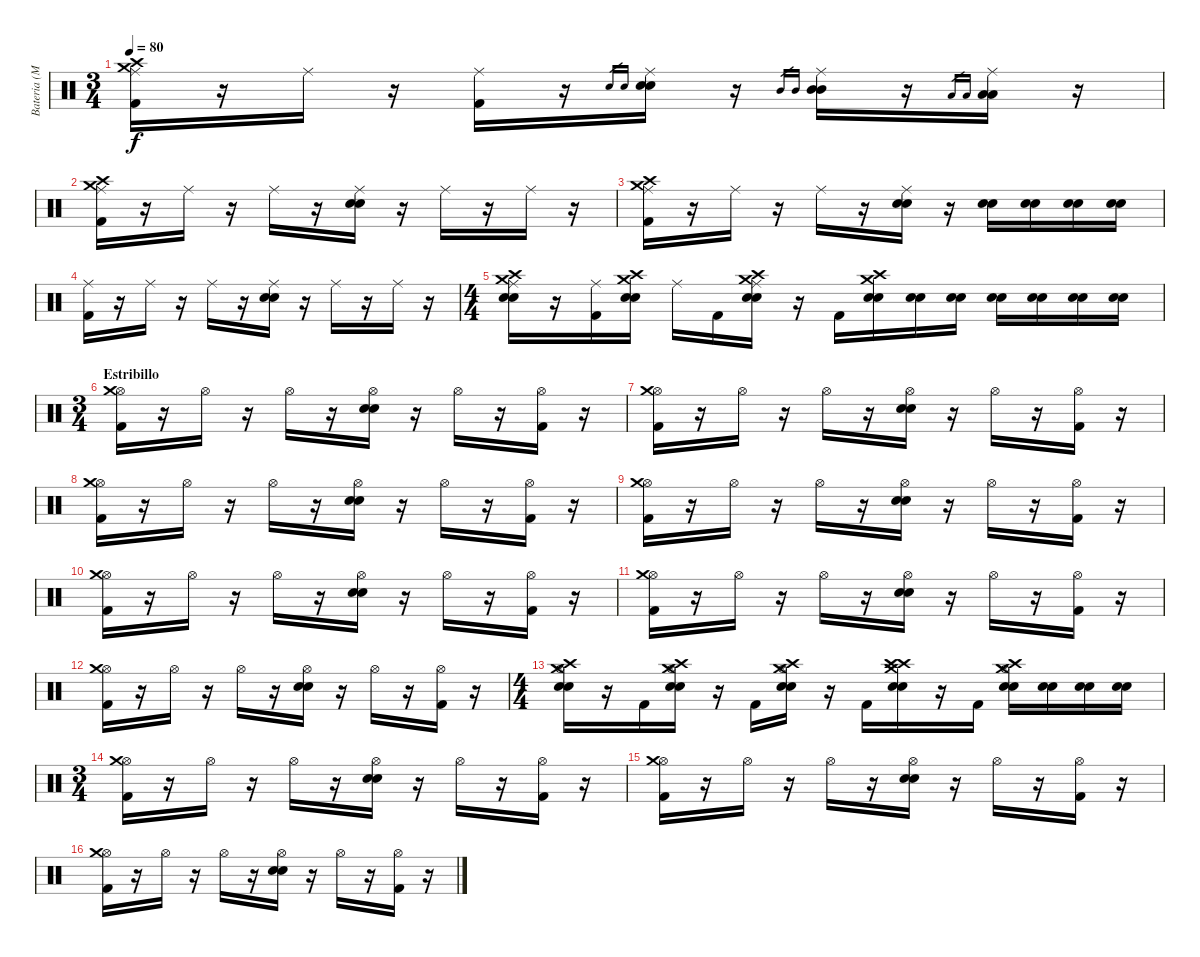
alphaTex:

\track ("Bateria (Matt)" "Bateria (M") {instrument percussion}
\staff {score}
\articulation defaults
\ts (3 4)
\tempo 80
\clef neutral
\ks c
("Ride (middle)" "Crash medium (hit)" "Crash high (hit)" "Kick (hit) 2").16{dy f} r.16 "Ride (middle)".16 r.16 ("Ride (middle)" "Kick (hit) 2").16 r.16 "Electric Snare (hit)".16{gr} "Snare (hit) 2".16{gr} ("Ride (middle)" "Electric Snare (hit)" "Snare (hit) 2").16 r.16 "Mid Tom (hit)".16{gr} "Mid Tom (hit)".16{gr} ("Ride (middle)" "Mid Tom (hit)" "Mid Tom (hit)").16 r.16 "Low Tom (hit)".16{gr} "Low Tom (hit)".16{gr} ("Ride (middle)" "Low Tom (hit)" "Low Tom (hit)").16 r.16 |
("Ride (middle)" "Crash medium (hit)" "Crash high (hit)" "Kick (hit) 2").16 r.16 "Ride (middle)".16 r.16 "Ride (middle)".16 r.16 ("Ride (middle)" "Electric Snare (hit)" "Snare (hit) 2").16 r.16 "Ride (middle)".16 r.16 "Ride (middle)".16 r.16 |
("Ride (middle)" "Crash medium (hit)" "Crash high (hit)" "Kick (hit) 2").16 r.16 "Ride (middle)".16 r.16 "Ride (middle)".16 r.16 ("Ride (middle)" "Electric Snare (hit)" "Snare (hit) 2").16 r.16 ("Electric Snare (hit)" "Snare (hit) 2").16 ("Electric Snare (hit)" "Snare (hit) 2").16 ("Electric Snare (hit)" "Snare (hit) 2").16 ("Electric Snare (hit)" "Snare (hit) 2").16 |
("Ride (middle)" "Kick (hit) 2").16 r.16 "Ride (middle)".16 r.16 "Ride (middle)".16 r.16 ("Ride (middle)" "Electric Snare (hit)" "Snare (hit) 2").16 r.16 "Ride (middle)".16 r.16 "Ride (middle)".16 r.16 |
\ts (4 4)
("Ride (middle)" "Crash medium (hit)" "Crash high (hit)" "Electric Snare (hit)" "Snare (hit) 2").16 r.16 ("Ride (middle)" "Kick (hit) 2").16 ("Crash medium (hit)" "Crash high (hit)" "Electric Snare (hit)" "Snare (hit) 2").16 "Ride (middle)".16 "Kick (hit) 2".16 ("Ride (middle)" "Crash medium (hit)" "Crash high (hit)" "Electric Snare (hit)" "Snare (hit) 2").16 r.16 "Kick (hit) 2".16 ("Crash medium (hit)" "Crash high (hit)" "Electric Snare (hit)" "Snare (hit) 2").16 ("Electric Snare (hit)" "Snare (hit) 2").16 ("Electric Snare (hit)" "Snare (hit) 2").16 ("Electric Snare (hit)" "Snare (hit) 2").16 ("Electric Snare (hit)" "Snare (hit) 2").16 ("Electric Snare (hit)" "Snare (hit) 2").16 ("Electric Snare (hit)" "Snare (hit) 2").16 |
\ts (3 4)
\section ("" "Estribillo")
("Hi-Hat (open)" "Crash medium (hit)" "Kick (hit) 2").16 r.16 "Hi-Hat (open)".16 r.16 "Hi-Hat (open)".16 r.16 ("Hi-Hat (open)" "Electric Snare (hit)" "Snare (hit) 2").16 r.16 "Hi-Hat (open)".16 r.16 ("Hi-Hat (open)" "Kick (hit) 2").16 r.16 |
("Hi-Hat (open)" "Crash medium (hit)" "Kick (hit) 2").16 r.16 "Hi-Hat (open)".16 r.16 "Hi-Hat (open)".16 r.16 ("Hi-Hat (open)" "Electric Snare (hit)" "Snare (hit) 2").16 r.16 "Hi-Hat (open)".16 r.16 ("Hi-Hat (open)" "Kick (hit) 2").16 r.16 |
("Hi-Hat (open)" "Crash medium (hit)" "Kick (hit) 2").16 r.16 "Hi-Hat (open)".16 r.16 "Hi-Hat (open)".16 r.16 ("Hi-Hat (open)" "Electric Snare (hit)" "Snare (hit) 2").16 r.16 "Hi-Hat (open)".16 r.16 ("Hi-Hat (open)" "Kick (hit) 2").16 r.16 |
("Hi-Hat (open)" "Crash medium (hit)" "Kick (hit) 2").16 r.16 "Hi-Hat (open)".16 r.16 "Hi-Hat (open)".16 r.16 ("Hi-Hat (open)" "Electric Snare (hit)" "Snare (hit) 2").16 r.16 "Hi-Hat (open)".16 r.16 ("Hi-Hat (open)" "Kick (hit) 2").16 r.16 |
("Hi-Hat (open)" "Crash medium (hit)" "Kick (hit) 2").16 r.16 "Hi-Hat (open)".16 r.16 "Hi-Hat (open)".16 r.16 ("Hi-Hat (open)" "Electric Snare (hit)" "Snare (hit) 2").16 r.16 "Hi-Hat (open)".16 r.16 ("Hi-Hat (open)" "Kick (hit) 2").16 r.16 |
("Hi-Hat (open)" "Crash medium (hit)" "Kick (hit) 2").16 r.16 "Hi-Hat (open)".16 r.16 "Hi-Hat (open)".16 r.16 ("Hi-Hat (open)" "Electric Snare (hit)" "Snare (hit) 2").16 r.16 "Hi-Hat (open)".16 r.16 ("Hi-Hat (open)" "Kick (hit) 2").16 r.16 |
("Hi-Hat (open)" "Crash medium (hit)" "Kick (hit) 2").16 r.16 "Hi-Hat (open)".16 r.16 "Hi-Hat (open)".16 r.16 ("Hi-Hat (open)" "Electric Snare (hit)" "Snare (hit) 2").16 r.16 "Hi-Hat (open)".16 r.16 ("Hi-Hat (open)" "Kick (hit) 2").16 r.16 |
\ts (4 4)
("Hi-Hat (open)" "Crash medium (hit)" "Crash high (hit)" "Electric Snare (hit)" "Snare (hit) 2").16 r.16 "Kick (hit) 2".16 ("Hi-Hat (open)" "Crash medium (hit)" "Crash high (hit)" "Electric Snare (hit)" "Snare (hit) 2").16 r.16 "Kick (hit) 2".16 ("Hi-Hat (open)" "Crash medium (hit)" "Crash high (hit)" "Electric Snare (hit)" "Snare (hit) 2").16 r.16 "Kick (hit) 2".16 ("Crash high (hit)" "Crash medium (hit)" "Crash high (hit)" "Electric Snare (hit)" "Snare (hit) 2").16 r.16 "Kick (hit) 2".16 ("Hi-Hat (open)" "Crash medium (hit)" "Crash high (hit)" "Electric Snare (hit)" "Snare (hit) 2").16 ("Electric Snare (hit)" "Snare (hit) 2").16 ("Electric Snare (hit)" "Snare (hit) 2").16 ("Electric Snare (hit)" "Snare (hit) 2").16 |
\ts (3 4)
("Hi-Hat (open)" "Crash medium (hit)" "Kick (hit) 2").16 r.16 "Hi-Hat (open)".16 r.16 "Hi-Hat (open)".16 r.16 ("Hi-Hat (open)" "Electric Snare (hit)" "Snare (hit) 2").16 r.16 "Hi-Hat (open)".16 r.16 ("Hi-Hat (open)" "Kick (hit) 2").16 r.16 |
("Hi-Hat (open)" "Crash medium (hit)" "Kick (hit) 2").16 r.16 "Hi-Hat (open)".16 r.16 "Hi-Hat (open)".16 r.16 ("Hi-Hat (open)" "Electric Snare (hit)" "Snare (hit) 2").16 r.16 "Hi-Hat (open)".16 r.16 ("Hi-Hat (open)" "Kick (hit) 2").16 r.16 |
("Hi-Hat (open)" "Crash medium (hit)" "Kick (hit) 2").16 r.16 "Hi-Hat (open)".16 r.16 "Hi-Hat (open)".16 r.16 ("Hi-Hat (open)" "Electric Snare (hit)" "Snare (hit) 2").16 r.16 "Hi-Hat (open)".16 r.16 ("Hi-Hat (open)" "Kick (hit) 2").16 r.16
